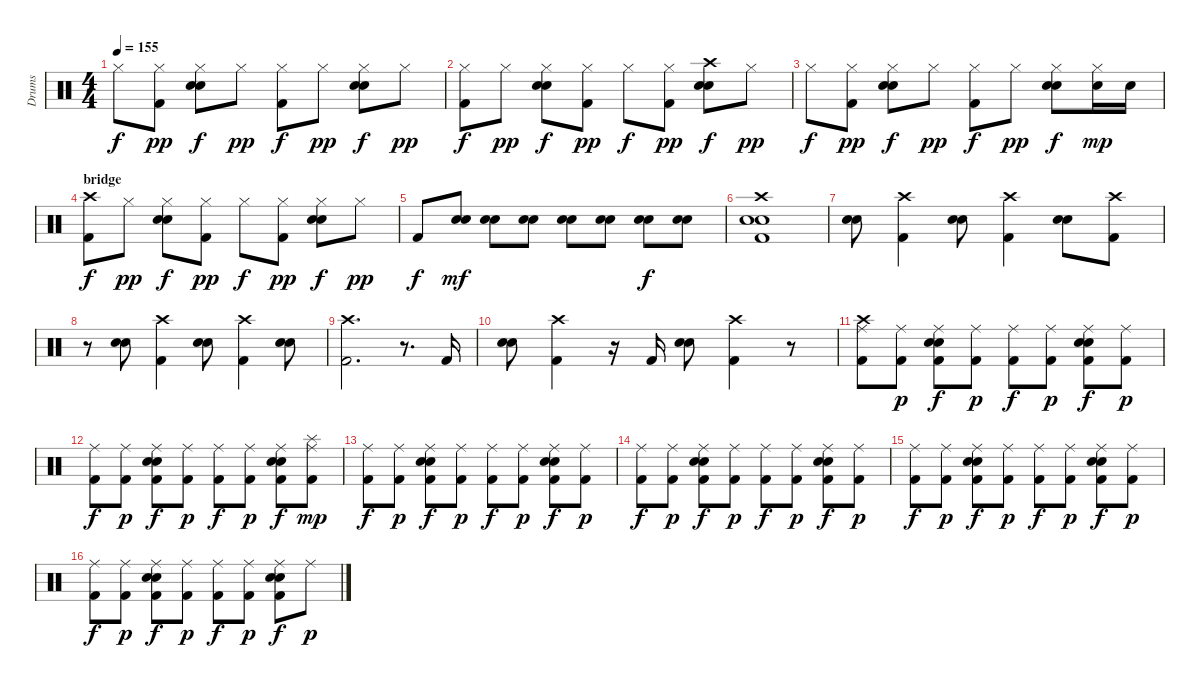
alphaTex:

\track ("Drums" "Drums") {instrument percussion}
\staff {score}
\articulation defaults
\ts (4 4)
\tempo 155
\clef neutral
\ks c "Hi-Hat (closed)".8{dy f}
("Hi-Hat (closed)" "Kick (hit) 2").8{dy pp} ("Hi-Hat (closed)" "Snare (hit) 2" "Electric Snare (hit)").8{dy f} "Hi-Hat (closed)".8{dy pp} ("Hi-Hat (closed)" "Kick (hit) 2").8{dy f} "Hi-Hat (closed)".8{dy pp} ("Hi-Hat (closed)" "Snare (hit) 2" "Electric Snare (hit)").8{dy f} "Hi-Hat (closed)".8{dy pp} |
("Hi-Hat (closed)" "Kick (hit) 2").8{dy f} "Hi-Hat (closed)".8{dy pp} ("Hi-Hat (closed)" "Snare (hit) 2" "Electric Snare (hit)").8{dy f} ("Hi-Hat (closed)" "Kick (hit) 2").8{dy pp} "Hi-Hat (closed)".8{dy f} ("Hi-Hat (closed)" "Kick (hit) 2").8{dy pp} ("Crash high (hit)" "Snare (hit) 2" "Electric Snare (hit)").8{dy f} "Hi-Hat (closed)".8{dy pp} |
"Hi-Hat (closed)".8{dy f} ("Hi-Hat (closed)" "Kick (hit) 2").8{dy pp} ("Hi-Hat (closed)" "Snare (hit) 2" "Electric Snare (hit)").8{dy f} "Hi-Hat (closed)".8{dy pp} ("Hi-Hat (closed)" "Kick (hit) 2").8{dy f} "Hi-Hat (closed)".8{dy pp} ("Hi-Hat (closed)" "Snare (hit) 2" "Electric Snare (hit)").8{dy f} ("Hi-Hat (closed)" "Snare (hit) 2").16{dy mp} "Snare (hit) 2".16 |
\section ("" "bridge")
("Crash high (hit)" "Kick (hit) 2").8{dy f} "Hi-Hat (closed)".8{dy pp} ("Hi-Hat (closed)" "Snare (hit) 2" "Electric Snare (hit)").8{dy f} ("Hi-Hat (closed)" "Kick (hit) 2").8{dy pp} "Hi-Hat (closed)".8{dy f} ("Hi-Hat (closed)" "Kick (hit) 2").8{dy pp} ("Hi-Hat (closed)" "Snare (hit) 2" "Electric Snare (hit)").8{dy f} "Hi-Hat (closed)".8{dy pp} |
"Kick (hit) 2".8{dy f} ("Snare (hit) 2" "Electric Snare (hit)").8{dy mf} ("Snare (hit) 2" "Electric Snare (hit)").8 ("Snare (hit) 2" "Electric Snare (hit)").8 ("Snare (hit) 2" "Electric Snare (hit)").8 ("Snare (hit) 2" "Electric Snare (hit)").8 ("Snare (hit) 2" "Electric Snare (hit)").8{dy f} ("Snare (hit) 2" "Electric Snare (hit)").8 |
("Crash high (hit)" "Snare (hit) 2" "Electric Snare (hit)" "Kick (hit) 2").1 |
("Snare (hit) 2" "Electric Snare (hit)").8 ("Crash high (hit)" "Kick (hit) 2").4 ("Snare (hit) 2" "Electric Snare (hit)").8 ("Crash high (hit)" "Kick (hit) 2").4 ("Snare (hit) 2" "Electric Snare (hit)").8 ("Crash high (hit)" "Kick (hit) 2").8 |
r.8 ("Snare (hit) 2" "Electric Snare (hit)").8 ("Crash high (hit)" "Kick (hit) 2").4 ("Snare (hit) 2" "Electric Snare (hit)").8 ("Crash high (hit)" "Kick (hit) 2").4 ("Snare (hit) 2" "Electric Snare (hit)").8 |
("Crash high (hit)" "Kick (hit) 2").2{d} r.8{d} "Kick (hit) 2".16 |
("Snare (hit) 2" "Electric Snare (hit)").8 ("Crash high (hit)" "Kick (hit) 2").4 r.16 "Kick (hit) 2".16 ("Snare (hit) 2" "Electric Snare (hit)").8 ("Crash high (hit)" "Kick (hit) 2").4 r.8 |
\section ("" "")
("Ride (middle)" "Crash high (hit)" "Kick (hit) 2").8 ("Ride (middle)" "Kick (hit) 2").8{dy p} ("Ride (middle)" "Snare (hit) 2" "Electric Snare (hit)" "Kick (hit) 2").8{dy f} ("Ride (middle)" "Kick (hit) 2").8{dy p} ("Ride (middle)" "Kick (hit) 2").8{dy f} ("Ride (middle)" "Kick (hit) 2").8{dy p} ("Ride (middle)" "Snare (hit) 2" "Electric Snare (hit)" "Kick (hit) 2").8{dy f} ("Ride (middle)" "Kick (hit) 2").8{dy p} |
("Ride (middle)" "Kick (hit) 2").8{dy f} ("Ride (middle)" "Kick (hit) 2").8{dy p} ("Ride (middle)" "Snare (hit) 2" "Electric Snare (hit)" "Kick (hit) 2").8{dy f} ("Ride (middle)" "Kick (hit) 2").8{dy p} ("Ride (middle)" "Kick (hit) 2").8{dy f} ("Ride (middle)" "Kick (hit) 2").8{dy p} ("Ride (middle)" "Snare (hit) 2" "Electric Snare (hit)" "Kick (hit) 2").8{dy f} ("Ride (middle)" "Splash (hit)" "Kick (hit) 2").8{dy mp} |
("Ride (middle)" "Kick (hit) 2").8{dy f} ("Ride (middle)" "Kick (hit) 2").8{dy p} ("Ride (middle)" "Snare (hit) 2" "Electric Snare (hit)" "Kick (hit) 2").8{dy f} ("Ride (middle)" "Kick (hit) 2").8{dy p} ("Ride (middle)" "Kick (hit) 2").8{dy f} ("Ride (middle)" "Kick (hit) 2").8{dy p} ("Ride (middle)" "Snare (hit) 2" "Electric Snare (hit)" "Kick (hit) 2").8{dy f} ("Ride (middle)" "Kick (hit) 2").8{dy p} |
("Ride (middle)" "Kick (hit) 2").8{dy f} ("Ride (middle)" "Kick (hit) 2").8{dy p} ("Ride (middle)" "Snare (hit) 2" "Electric Snare (hit)" "Kick (hit) 2").8{dy f} ("Ride (middle)" "Kick (hit) 2").8{dy p} ("Ride (middle)" "Kick (hit) 2").8{dy f} ("Ride (middle)" "Kick (hit) 2").8{dy p} ("Ride (middle)" "Snare (hit) 2" "Electric Snare (hit)" "Kick (hit) 2").8{dy f} ("Ride (middle)" "Kick (hit) 2").8{dy p} |
("Ride (middle)" "Kick (hit) 2").8{dy f} ("Ride (middle)" "Kick (hit) 2").8{dy p} ("Ride (middle)" "Snare (hit) 2" "Electric Snare (hit)" "Kick (hit) 2").8{dy f} ("Ride (middle)" "Kick (hit) 2").8{dy p} ("Ride (middle)" "Kick (hit) 2").8{dy f} ("Ride (middle)" "Kick (hit) 2").8{dy p} ("Ride (middle)" "Snare (hit) 2" "Electric Snare (hit)" "Kick (hit) 2").8{dy f} ("Ride (middle)" "Kick (hit) 2").8{dy p} |
("Ride (middle)" "Kick (hit) 2").8{dy f} ("Ride (middle)" "Kick (hit) 2").8{dy p} ("Ride (middle)" "Snare (hit) 2" "Electric Snare (hit)" "Kick (hit) 2").8{dy f} ("Ride (middle)" "Kick (hit) 2").8{dy p} ("Ride (middle)" "Kick (hit) 2").8{dy f} ("Ride (middle)" "Kick (hit) 2").8{dy p} ("Ride (middle)" "Snare (hit) 2" "Electric Snare (hit)" "Kick (hit) 2").8{dy f} "Ride (middle)".8{dy p}
